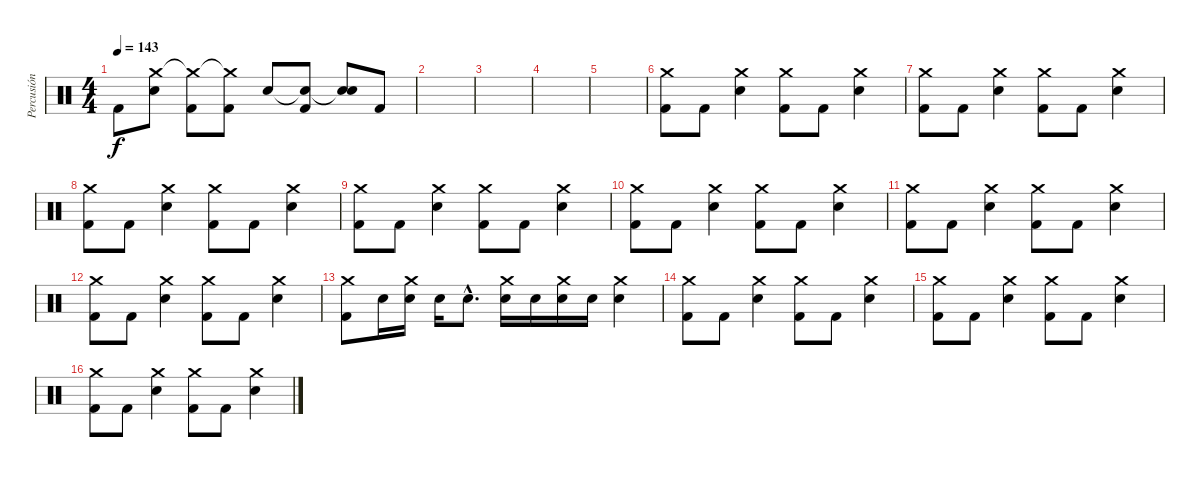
\track ("Percusión" "Percusión") {instrument percussion}
\staff {score}
\articulation defaults
\ts (4 4)
\tempo 143
\clef neutral
\ks c "Kick (hit) 2".8{dy f}
("Crash medium (hit)" "Snare (hit) 2").8 ("Crash medium (hit)"{t} "Kick (hit) 2").8 ("Crash medium (hit)"{t} "Kick (hit) 2").8 "Snare (hit) 2".8 ("Snare (hit)"{t} "Kick (hit) 2").8 ("Snare (hit)"{t} "Snare (hit) 2").8 "Kick (hit) 2".8 |
|
|
|
|
("Crash medium (hit)" "Kick (hit) 2").8 "Kick (hit) 2".8 ("Crash medium (hit)" "Snare (hit) 2").4 ("Crash medium (hit)" "Kick (hit) 2").8 "Kick (hit) 2".8 ("Crash medium (hit)" "Snare (hit) 2").4 |
("Crash medium (hit)" "Kick (hit) 2").8 "Kick (hit) 2".8 ("Crash medium (hit)" "Snare (hit) 2").4 ("Crash medium (hit)" "Kick (hit) 2").8 "Kick (hit) 2".8 ("Crash medium (hit)" "Snare (hit) 2").4 |
("Crash medium (hit)" "Kick (hit) 2").8 "Kick (hit) 2".8 ("Crash medium (hit)" "Snare (hit) 2").4 ("Crash medium (hit)" "Kick (hit) 2").8 "Kick (hit) 2".8 ("Crash medium (hit)" "Snare (hit) 2").4 |
("Crash medium (hit)" "Kick (hit) 2").8 "Kick (hit) 2".8 ("Crash medium (hit)" "Snare (hit) 2").4 ("Crash medium (hit)" "Kick (hit) 2").8 "Kick (hit) 2".8 ("Crash medium (hit)" "Snare (hit) 2").4 |
("Crash medium (hit)" "Kick (hit) 2").8 "Kick (hit) 2".8 ("Crash medium (hit)" "Snare (hit) 2").4 ("Crash medium (hit)" "Kick (hit) 2").8 "Kick (hit) 2".8 ("Crash medium (hit)" "Snare (hit) 2").4 |
("Crash medium (hit)" "Kick (hit) 2").8 "Kick (hit) 2".8 ("Crash medium (hit)" "Snare (hit) 2").4 ("Crash medium (hit)" "Kick (hit) 2").8 "Kick (hit) 2".8 ("Crash medium (hit)" "Snare (hit) 2").4 |
("Crash medium (hit)" "Kick (hit) 2").8 "Kick (hit) 2".8 ("Crash medium (hit)" "Snare (hit) 2").4 ("Crash medium (hit)" "Kick (hit) 2").8 "Kick (hit) 2".8 ("Crash medium (hit)" "Snare (hit) 2").4 |
("Crash medium (hit)" "Kick (hit) 2").8 "Snare (hit) 2".16 ("Crash medium (hit)" "Snare (hit) 2").16 "Snare (hit) 2".16 "Snare (hit) 2"{hac}.8{d} ("Crash medium (hit)" "Snare (hit) 2").16 "Snare (hit) 2".16 ("Crash medium (hit)" "Snare (hit) 2").16 "Snare (hit) 2".16 ("Crash medium (hit)" "Snare (hit) 2").4 |
("Crash medium (hit)" "Kick (hit) 2").8 "Kick (hit) 2".8 ("Crash medium (hit)" "Snare (hit) 2").4 ("Crash medium (hit)" "Kick (hit) 2").8 "Kick (hit) 2".8 ("Crash medium (hit)" "Snare (hit) 2").4 |
("Crash medium (hit)" "Kick (hit) 2").8 "Kick (hit) 2".8 ("Crash medium (hit)" "Snare (hit) 2").4 ("Crash medium (hit)" "Kick (hit) 2").8 "Kick (hit) 2".8 ("Crash medium (hit)" "Snare (hit) 2").4 |
("Crash medium (hit)" "Kick (hit) 2").8 "Kick (hit) 2".8 ("Crash medium (hit)" "Snare (hit) 2").4 ("Crash medium (hit)" "Kick (hit) 2").8 "Kick (hit) 2".8 ("Crash medium (hit)" "Snare (hit) 2").4
